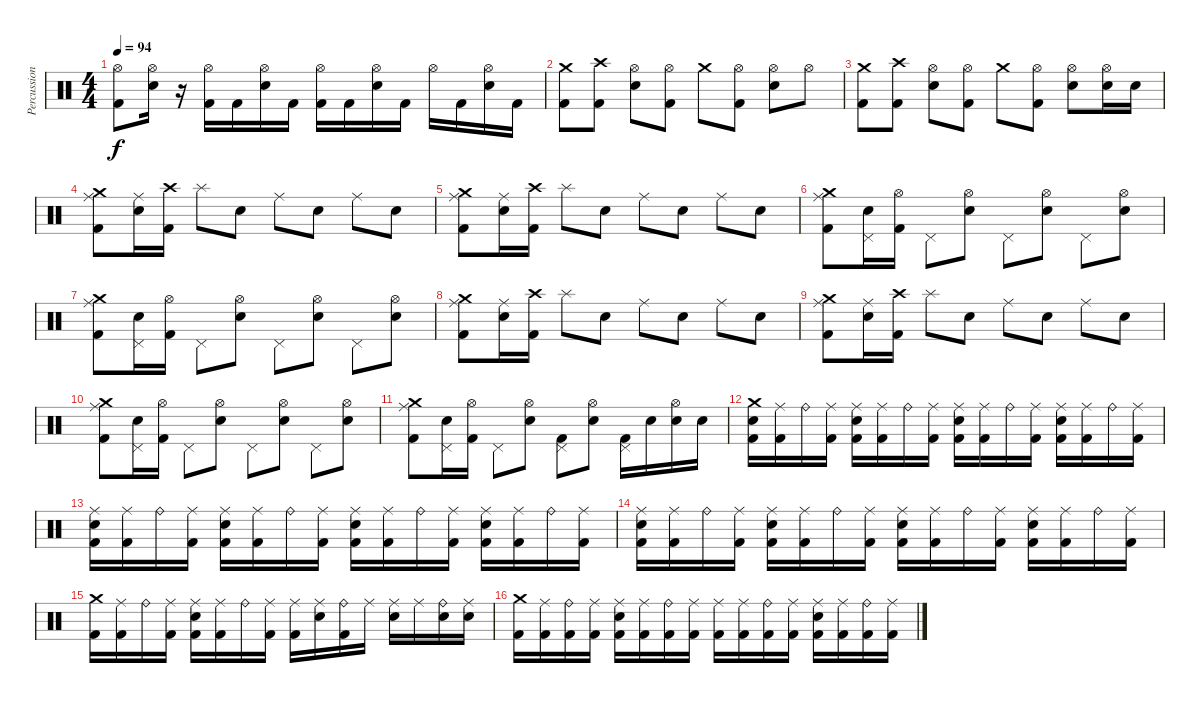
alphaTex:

\track ("Percussion" "Percussion") {instrument percussion}
\staff {score}
\articulation defaults
\ts (4 4)
\tempo 94
\clef neutral
\ks c
("Hi-Hat (open)" "Kick (hit) 2").8{dy f} ("Hi-Hat (open)" "Electric Snare (hit)").16 r.16 ("Hi-Hat (open)" "Kick (hit) 2").16 "Kick (hit) 2".16 ("Hi-Hat (open)" "Electric Snare (hit)").16 "Kick (hit) 2".16 ("Hi-Hat (open)" "Kick (hit) 2").16 "Kick (hit) 2".16 ("Hi-Hat (open)" "Electric Snare (hit)").16 "Kick (hit) 2".16 "Hi-Hat (open)".16 "Kick (hit) 2".16 ("Hi-Hat (open)" "Electric Snare (hit)").16 "Kick (hit) 2".16 |
("Crash medium (hit)" "Kick (hit) 2").8 ("Crash high (hit)" "Kick (hit) 2").8 ("Hi-Hat (open)" "Electric Snare (hit)").8 ("Hi-Hat (open)" "Kick (hit) 2").8 "Crash medium (hit)".8 ("Hi-Hat (open)" "Kick (hit) 2").8 ("Hi-Hat (open)" "Electric Snare (hit)").8 "Hi-Hat (open)".8 |
("Crash medium (hit)" "Kick (hit) 2").8 ("Crash high (hit)" "Kick (hit) 2").8 ("Hi-Hat (open)" "Electric Snare (hit)").8 ("Hi-Hat (open)" "Kick (hit) 2").8 "Crash medium (hit)".8 ("Hi-Hat (open)" "Kick (hit) 2").8 ("Hi-Hat (open)" "Electric Snare (hit)").8 ("Hi-Hat (open)" "Electric Snare (hit)").16 "Electric Snare (hit)".16 |
("Crash medium (hit)" "Ride (middle)" "Kick (hit) 2").8 ("Ride (middle)" "Electric Snare (hit)").16 ("Crash high (hit)" "Kick (hit) 2").16 "Splash (hit)".8 "Electric Snare (hit)".8 "Ride (middle)".8 "Electric Snare (hit)".8 "Ride (middle)".8 "Electric Snare (hit)".8 |
("Crash medium (hit)" "Ride (middle)" "Kick (hit) 2").8 ("Ride (middle)" "Electric Snare (hit)").16 ("Crash high (hit)" "Kick (hit) 2").16 "Splash (hit)".8 "Electric Snare (hit)".8 "Ride (middle)".8 "Electric Snare (hit)".8 "Ride (middle)".8 "Electric Snare (hit)".8 |
("Crash medium (hit)" "Ride (middle)" "Kick (hit) 2").8 ("Pedal Hi-Hat (hit)" "Electric Snare (hit)").16 ("Hi-Hat (open)" "Kick (hit) 2").16 "Pedal Hi-Hat (hit)".8 ("Hi-Hat (open)" "Electric Snare (hit)").8 "Pedal Hi-Hat (hit)".8 ("Hi-Hat (open)" "Electric Snare (hit)").8 "Pedal Hi-Hat (hit)".8 ("Hi-Hat (open)" "Electric Snare (hit)").8 |
("Crash medium (hit)" "Ride (middle)" "Kick (hit) 2").8 ("Pedal Hi-Hat (hit)" "Electric Snare (hit)").16 ("Hi-Hat (open)" "Kick (hit) 2").16 "Pedal Hi-Hat (hit)".8 ("Hi-Hat (open)" "Electric Snare (hit)").8 "Pedal Hi-Hat (hit)".8 ("Hi-Hat (open)" "Electric Snare (hit)").8 "Pedal Hi-Hat (hit)".8 ("Hi-Hat (open)" "Electric Snare (hit)").8 |
("Crash medium (hit)" "Ride (middle)" "Kick (hit) 2").8 ("Ride (middle)" "Electric Snare (hit)").16 ("Crash high (hit)" "Kick (hit) 2").16 "Splash (hit)".8 "Electric Snare (hit)".8 "Ride (middle)".8 "Electric Snare (hit)".8 "Ride (middle)".8 "Electric Snare (hit)".8 |
("Crash medium (hit)" "Ride (middle)" "Kick (hit) 2").8 ("Ride (middle)" "Electric Snare (hit)").16 ("Crash high (hit)" "Kick (hit) 2").16 "Splash (hit)".8 "Electric Snare (hit)".8 "Ride (middle)".8 "Electric Snare (hit)".8 "Ride (middle)".8 "Electric Snare (hit)".8 |
("Crash medium (hit)" "Ride (middle)" "Kick (hit) 2").8 ("Pedal Hi-Hat (hit)" "Electric Snare (hit)").16 ("Hi-Hat (open)" "Kick (hit) 2").16 "Pedal Hi-Hat (hit)".8 ("Hi-Hat (open)" "Electric Snare (hit)").8 "Pedal Hi-Hat (hit)".8 ("Hi-Hat (open)" "Electric Snare (hit)").8 "Pedal Hi-Hat (hit)".8 ("Hi-Hat (open)" "Electric Snare (hit)").8 |
("Crash medium (hit)" "Ride (middle)" "Kick (hit) 2").8 ("Pedal Hi-Hat (hit)" "Electric Snare (hit)").16 ("Hi-Hat (open)" "Kick (hit) 2").16 "Pedal Hi-Hat (hit)".8 ("Hi-Hat (open)" "Electric Snare (hit)").8 ("Pedal Hi-Hat (hit)" "Kick (hit) 2").8 ("Hi-Hat (open)" "Electric Snare (hit)").8 ("Pedal Hi-Hat (hit)" "Kick (hit) 2").16 "Electric Snare (hit)".16 ("Hi-Hat (open)" "Electric Snare (hit)").16 "Electric Snare (hit)".16 |
("Crash medium (hit)" "Electric Snare (hit)" "Kick (hit) 2").16 ("Ride (middle)" "Kick (hit) 2").16 "Ride (bell)".16 ("Ride (middle)" "Kick (hit) 2").16 ("Ride (middle)" "Electric Snare (hit)" "Kick (hit) 2").16 ("Ride (middle)" "Kick (hit) 2").16 "Ride (bell)".16 ("Ride (middle)" "Kick (hit) 2").16 ("Ride (middle)" "Electric Snare (hit)" "Kick (hit) 2").16 ("Ride (middle)" "Kick (hit) 2").16 "Ride (bell)".16 ("Ride (middle)" "Kick (hit) 2").16 ("Ride (middle)" "Electric Snare (hit)" "Kick (hit) 2").16 ("Ride (middle)" "Kick (hit) 2").16 "Ride (bell)".16 ("Ride (middle)" "Kick (hit) 2").16 |
("Ride (middle)" "Electric Snare (hit)" "Kick (hit) 2").16 ("Ride (middle)" "Kick (hit) 2").16 "Ride (bell)".16 ("Ride (middle)" "Kick (hit) 2").16 ("Ride (middle)" "Electric Snare (hit)" "Kick (hit) 2").16 ("Ride (middle)" "Kick (hit) 2").16 "Ride (bell)".16 ("Ride (middle)" "Kick (hit) 2").16 ("Ride (middle)" "Electric Snare (hit)" "Kick (hit) 2").16 ("Ride (middle)" "Kick (hit) 2").16 "Ride (bell)".16 ("Ride (middle)" "Kick (hit) 2").16 ("Ride (middle)" "Electric Snare (hit)" "Kick (hit) 2").16 ("Ride (middle)" "Kick (hit) 2").16 "Ride (bell)".16 ("Ride (middle)" "Kick (hit) 2").16 |
("Ride (middle)" "Electric Snare (hit)" "Kick (hit) 2").16 ("Ride (middle)" "Kick (hit) 2").16 "Ride (bell)".16 ("Ride (middle)" "Kick (hit) 2").16 ("Ride (middle)" "Electric Snare (hit)" "Kick (hit) 2").16 ("Ride (middle)" "Kick (hit) 2").16 "Ride (bell)".16 ("Ride (middle)" "Kick (hit) 2").16 ("Ride (middle)" "Electric Snare (hit)" "Kick (hit) 2").16 ("Ride (middle)" "Kick (hit) 2").16 "Ride (bell)".16 ("Ride (middle)" "Kick (hit) 2").16 ("Ride (middle)" "Electric Snare (hit)" "Kick (hit) 2").16 ("Ride (middle)" "Kick (hit) 2").16 "Ride (bell)".16 ("Ride (middle)" "Kick (hit) 2").16 |
("Crash medium (hit)" "Kick (hit) 2").16 ("Ride (middle)" "Kick (hit) 2").16 "Ride (bell)".16 ("Ride (middle)" "Kick (hit) 2").16 ("Ride (middle)" "Electric Snare (hit)" "Kick (hit) 2").16 ("Ride (middle)" "Kick (hit) 2").16 "Ride (bell)".16 ("Ride (middle)" "Kick (hit) 2").16 ("Ride (middle)" "Kick (hit) 2").16 ("Ride (middle)" "Electric Snare (hit)").16 ("Ride (bell)" "Kick (hit) 2").16 "Ride (middle)".16 ("Ride (middle)" "Electric Snare (hit)").16 "Ride (middle)".16 ("Ride (bell)" "Electric Snare (hit)").16 ("Ride (middle)" "Electric Snare (hit)").16 |
("Crash medium (hit)" "Kick (hit) 2").16 ("Ride (middle)" "Kick (hit) 2").16 ("Ride (bell)" "Kick (hit) 2").16 ("Ride (middle)" "Kick (hit) 2").16 ("Ride (middle)" "Electric Snare (hit)" "Kick (hit) 2").16 ("Ride (middle)" "Kick (hit) 2").16 ("Ride (bell)" "Kick (hit) 2").16 ("Ride (middle)" "Kick (hit) 2").16 ("Ride (middle)" "Kick (hit) 2").16 ("Ride (middle)" "Kick (hit) 2").16 ("Ride (bell)" "Kick (hit) 2").16 ("Ride (middle)" "Kick (hit) 2").16 ("Ride (middle)" "Electric Snare (hit)" "Kick (hit) 2").16 ("Ride (middle)" "Kick (hit) 2").16 ("Ride (bell)" "Kick (hit) 2").16 ("Ride (middle)" "Kick (hit) 2").16
